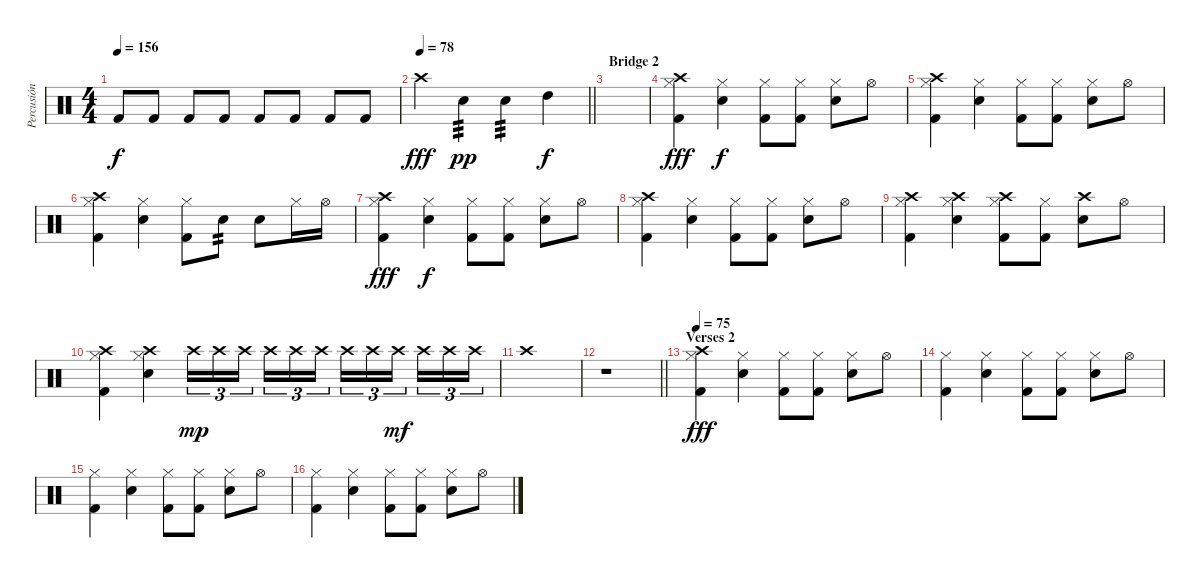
\track ("Percusión" "Percusión") {solo instrument percussion}
\staff {score}
\articulation defaults
\ts (4 4)
\tempo 156
\clef neutral
\ks c "Kick (hit) 2".8{dy f} "Kick (hit) 2".8 "Kick (hit) 2".8 "Kick (hit) 2".8 "Kick (hit) 2".8 "Kick (hit) 2".8 "Kick (hit) 2".8 "Kick (hit) 2".8
|
\tempo 78
\barLineRight lightlight "Crash high (hit)".4{dy fff} "Electric Snare (hit)".4{tp 3 dy pp} "Electric Snare (hit)".4{tp 3} "High Tom (hit)".4{dy f}
|
\section ("" "Bridge 2")
|
("Crash high (hit)" "Kick (hit) 2" "Hi-Hat (closed)").4{dy fff} ("Electric Snare (hit)" "Hi-Hat (closed)").4{dy f} ("Kick (hit) 2" "Hi-Hat (closed)").8 ("Kick (hit) 2" "Hi-Hat (closed)").8 ("Electric Snare (hit)" "Hi-Hat (closed)").8 "Hi-Hat (open)".8 |
("Crash high (hit)" "Kick (hit) 2" "Hi-Hat (closed)").4 ("Electric Snare (hit)" "Hi-Hat (closed)").4 ("Kick (hit) 2" "Hi-Hat (closed)").8 ("Kick (hit) 2" "Hi-Hat (closed)").8 ("Electric Snare (hit)" "Hi-Hat (closed)").8 "Hi-Hat (open)".8 |
("Crash high (hit)" "Kick (hit) 2" "Hi-Hat (closed)").4 ("Electric Snare (hit)" "Hi-Hat (closed)").4 ("Kick (hit) 2" "Hi-Hat (closed)").8 "Electric Snare (hit)".8{tp 2} "Electric Snare (hit)".8 "Hi-Hat (closed)".16 "Hi-Hat (open)".16 |
("Crash high (hit)" "Kick (hit) 2" "Hi-Hat (closed)").4{dy fff} ("Electric Snare (hit)" "Hi-Hat (closed)").4{dy f} ("Kick (hit) 2" "Hi-Hat (closed)").8 ("Kick (hit) 2" "Hi-Hat (closed)").8 ("Electric Snare (hit)" "Hi-Hat (closed)").8 "Hi-Hat (open)".8 |
("Crash high (hit)" "Kick (hit) 2" "Hi-Hat (closed)").4 ("Electric Snare (hit)" "Hi-Hat (closed)").4 ("Kick (hit) 2" "Hi-Hat (closed)").8 ("Kick (hit) 2" "Hi-Hat (closed)").8 ("Electric Snare (hit)" "Hi-Hat (closed)").8 "Hi-Hat (open)".8 |
("Crash high (hit)" "Kick (hit) 2" "Hi-Hat (closed)").4 ("Crash high (hit)" "Electric Snare (hit)" "Hi-Hat (closed)").4 ("Crash high (hit)" "Kick (hit) 2" "Hi-Hat (closed)").8 ("Kick (hit) 2" "Hi-Hat (closed)").8 ("Crash high (hit)" "Electric Snare (hit)").8 "Hi-Hat (open)".8 |
("Crash high (hit)" "Kick (hit) 2" "Hi-Hat (closed)").4 ("Crash high (hit)" "Electric Snare (hit)" "Hi-Hat (closed)").4 "Crash high (hit)".16{tu (3 2) dy mp} "Crash high (hit)".16{tu (3 2)} "Crash high (hit)".16{tu (3 2) beam splitsecondary} "Crash high (hit)".16{tu (3 2)} "Crash high (hit)".16{tu (3 2)} "Crash high (hit)".16{tu (3 2)} "Crash high (hit)".16{tu (3 2)} "Crash high (hit)".16{tu (3 2)} "Crash high (hit)".16{tu (3 2) dy mf beam splitsecondary} "Crash high (hit)".16{tu (3 2)} "Crash high (hit)".16{tu (3 2)} "Crash high (hit)".16{tu (3 2)} |
"Crash high (hit)".1 |
\barLineRight lightlight
r.1 |
\section ("" "Verses 2")
\tempo 75
("Crash high (hit)" "Kick (hit) 2" "Hi-Hat (closed)").4{dy fff} ("Electric Snare (hit)" "Hi-Hat (closed)").4 ("Kick (hit) 2" "Hi-Hat (closed)").8 ("Kick (hit) 2" "Hi-Hat (closed)").8 ("Electric Snare (hit)" "Hi-Hat (closed)").8 "Hi-Hat (open)".8 |
("Kick (hit) 2" "Hi-Hat (closed)").4 ("Electric Snare (hit)" "Hi-Hat (closed)").4 ("Kick (hit) 2" "Hi-Hat (closed)").8 ("Kick (hit) 2" "Hi-Hat (closed)").8 ("Electric Snare (hit)" "Hi-Hat (closed)").8 "Hi-Hat (open)".8 |
("Kick (hit) 2" "Hi-Hat (closed)").4 ("Electric Snare (hit)" "Hi-Hat (closed)").4 ("Kick (hit) 2" "Hi-Hat (closed)").8 ("Kick (hit) 2" "Hi-Hat (closed)").8 ("Electric Snare (hit)" "Hi-Hat (closed)").8 "Hi-Hat (open)".8 |
("Kick (hit) 2" "Hi-Hat (closed)").4 ("Electric Snare (hit)" "Hi-Hat (closed)").4 ("Kick (hit) 2" "Hi-Hat (closed)").8 ("Kick (hit) 2" "Hi-Hat (closed)").8 ("Electric Snare (hit)" "Hi-Hat (closed)").8 "Hi-Hat (open)".8
